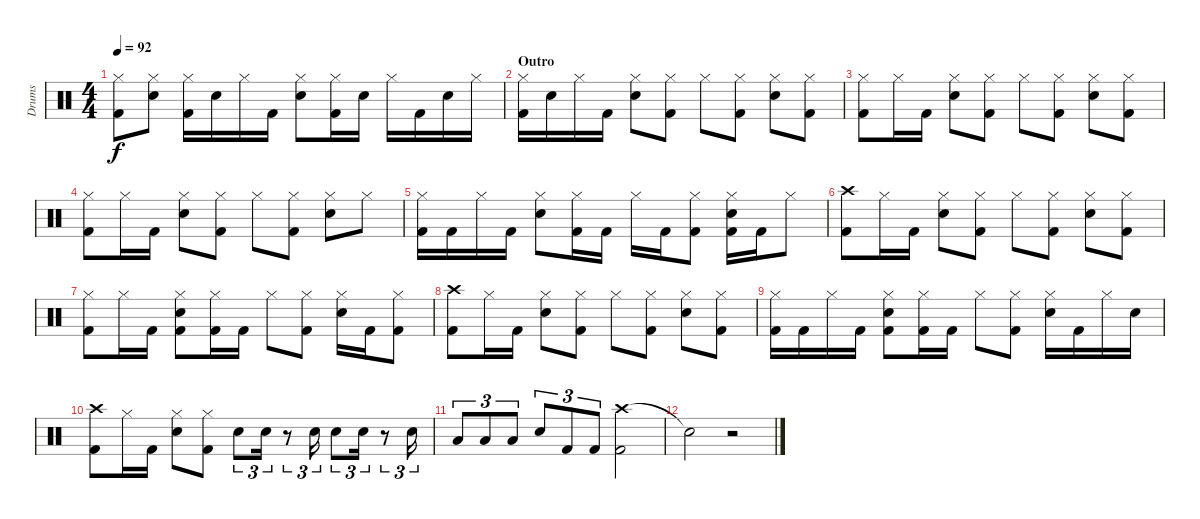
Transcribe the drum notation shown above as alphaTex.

\track ("Drums" "Drums") {instrument percussion}
\staff {score}
\articulation defaults
\ts (4 4)
\tempo 92
\clef neutral
\ks c
("Hi-Hat (closed)" "Kick (hit) 2").8{dy f} ("Hi-Hat (closed)" "Electric Snare (hit)").8 ("Hi-Hat (closed)" "Kick (hit) 2").16 "Electric Snare (hit)".16 "Hi-Hat (closed)".16 "Kick (hit) 2".16 ("Hi-Hat (closed)" "Electric Snare (hit)").8 ("Hi-Hat (closed)" "Kick (hit) 2").16 "Electric Snare (hit)".16 "Hi-Hat (closed)".16 "Kick (hit) 2".16 "Electric Snare (hit)".16 "Hi-Hat (closed)".16 |
\section ("" "Outro")
("Hi-Hat (closed)" "Kick (hit) 2").16 "Electric Snare (hit)".16 "Hi-Hat (closed)".16 "Kick (hit) 2".16 ("Hi-Hat (closed)" "Electric Snare (hit)").8 ("Hi-Hat (closed)" "Kick (hit) 2").8 "Hi-Hat (closed)".8 ("Hi-Hat (closed)" "Kick (hit) 2").8 ("Hi-Hat (closed)" "Electric Snare (hit)").8 ("Hi-Hat (closed)" "Kick (hit) 2").8 |
("Hi-Hat (closed)" "Kick (hit) 2").8 "Hi-Hat (closed)".16 "Kick (hit) 2".16 ("Hi-Hat (closed)" "Electric Snare (hit)").8 ("Hi-Hat (closed)" "Kick (hit) 2").8 "Hi-Hat (closed)".8 ("Hi-Hat (closed)" "Kick (hit) 2").8 ("Hi-Hat (closed)" "Electric Snare (hit)").8 ("Hi-Hat (closed)" "Kick (hit) 2").8 |
("Hi-Hat (closed)" "Kick (hit) 2").8 "Hi-Hat (closed)".16 "Kick (hit) 2".16 ("Hi-Hat (closed)" "Electric Snare (hit)").8 ("Hi-Hat (closed)" "Kick (hit) 2").8 "Hi-Hat (closed)".8 ("Hi-Hat (closed)" "Kick (hit) 2").8 ("Hi-Hat (closed)" "Electric Snare (hit)").8 "Hi-Hat (closed)".8 |
("Hi-Hat (closed)" "Kick (hit) 2").16 "Kick (hit) 2".16 "Hi-Hat (closed)".16 "Kick (hit) 2".16 ("Hi-Hat (closed)" "Electric Snare (hit)").8 ("Hi-Hat (closed)" "Kick (hit) 2").16 "Kick (hit) 2".16 "Hi-Hat (closed)".16 "Kick (hit) 2".16 ("Hi-Hat (closed)" "Kick (hit) 2").8 ("Hi-Hat (closed)" "Electric Snare (hit)" "Kick (hit) 2").16 "Kick (hit) 2".16 "Hi-Hat (closed)".8 |
("Crash high (hit)" "Kick (hit) 2").8 "Hi-Hat (closed)".16 "Kick (hit) 2".16 ("Hi-Hat (closed)" "Electric Snare (hit)").8 ("Hi-Hat (closed)" "Kick (hit) 2").8 "Hi-Hat (closed)".8 ("Hi-Hat (closed)" "Kick (hit) 2").8 ("Hi-Hat (closed)" "Electric Snare (hit)").8 ("Hi-Hat (closed)" "Kick (hit) 2").8 |
("Hi-Hat (closed)" "Kick (hit) 2").8 "Hi-Hat (closed)".16 "Kick (hit) 2".16 ("Hi-Hat (closed)" "Electric Snare (hit)" "Kick (hit) 2").8 ("Hi-Hat (closed)" "Kick (hit) 2").16 "Kick (hit) 2".16 "Hi-Hat (closed)".8 ("Hi-Hat (closed)" "Kick (hit) 2").8 ("Hi-Hat (closed)" "Electric Snare (hit)").16 "Kick (hit) 2".16 ("Hi-Hat (closed)" "Kick (hit) 2").8 |
("Crash high (hit)" "Kick (hit) 2").8 "Hi-Hat (closed)".16 "Kick (hit) 2".16 ("Hi-Hat (closed)" "Electric Snare (hit)").8 ("Hi-Hat (closed)" "Kick (hit) 2").8 "Hi-Hat (closed)".8 ("Hi-Hat (closed)" "Kick (hit) 2").8 ("Hi-Hat (closed)" "Electric Snare (hit)").8 ("Hi-Hat (closed)" "Kick (hit) 2").8 |
("Hi-Hat (closed)" "Kick (hit) 2").16 "Kick (hit) 2".16 "Hi-Hat (closed)".16 "Kick (hit) 2".16 ("Hi-Hat (closed)" "Electric Snare (hit)" "Kick (hit) 2").8 ("Hi-Hat (closed)" "Kick (hit) 2").16 "Kick (hit) 2".16 "Hi-Hat (closed)".8 ("Hi-Hat (closed)" "Kick (hit) 2").8 ("Hi-Hat (closed)" "Electric Snare (hit)").16 "Kick (hit) 2".16 "Hi-Hat (closed)".16 "Electric Snare (hit)".16 |
("Crash high (hit)" "Kick (hit) 2").8 "Hi-Hat (closed)".16 "Kick (hit) 2".16 ("Hi-Hat (closed)" "Electric Snare (hit)").8 ("Hi-Hat (closed)" "Kick (hit) 2").8 "Electric Snare (hit)".8{tu (3 2)} "Electric Snare (hit)".16{tu (3 2)} r.8{tu (3 2)} "Electric Snare (hit)".16{tu (3 2)} "Electric Snare (hit)".8{tu (3 2)} "Electric Snare (hit)".16{tu (3 2)} r.8{tu (3 2)} "Electric Snare (hit)".16{tu (3 2)} |
"Low Tom (hit)".8{tu (3 2)} "Low Tom (hit)".8{tu (3 2)} "Low Tom (hit)".8{tu (3 2)} "Electric Snare (hit)".8{tu (3 2)} "Kick (hit) 2".8{tu (3 2)} "Kick (hit) 2".8{tu (3 2)} ("Crash high (hit)" "Kick (hit) 2").2 |
"Snare (hit)"{t}.2 r.2
